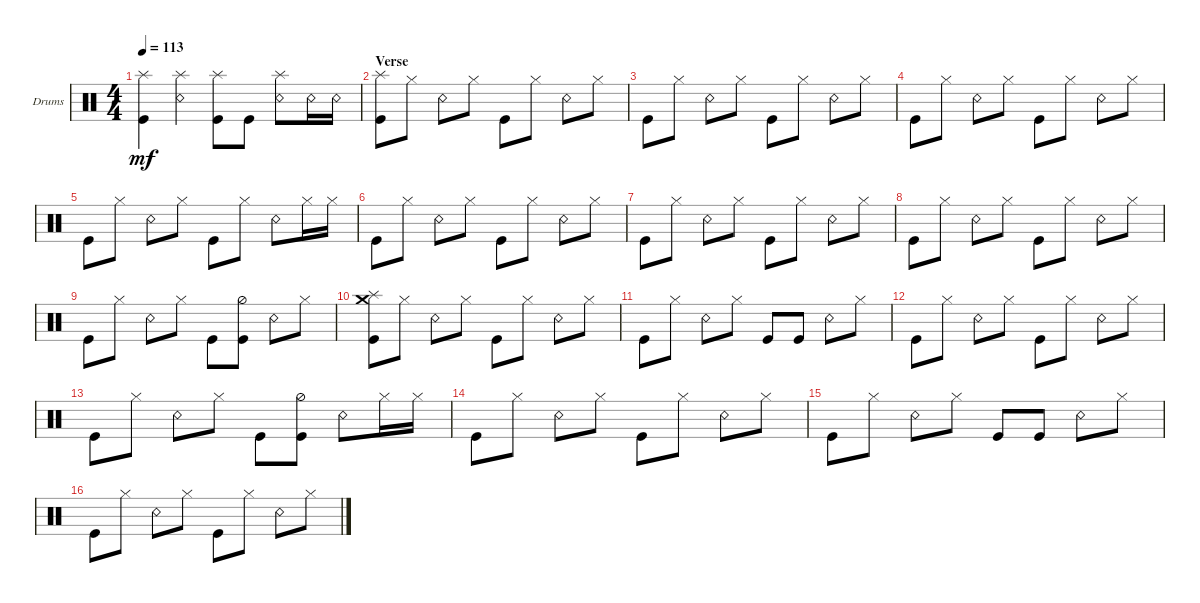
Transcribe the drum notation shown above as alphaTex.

\defaultSystemsLayout 4
\bracketExtendMode groupsimilarinstruments
\firstSystemTrackNameOrientation horizontal
\otherSystemsTrackNameOrientation horizontal
\track ("Drums" "Drums") {instrument percussion}
\staff {score}
\articulation defaults
\ts (4 4)
\tempo 113
\clef neutral
\ks c
("Splash (hit)" "Kick (hit)").4{dy mf} ("Splash (hit)" "Snare (rim shot)").4 ("Splash (hit)" "Kick (hit)").8 "Kick (hit)".8 ("Splash (hit)" "Snare (rim shot)").8 "Snare (rim shot)".16 "Snare (rim shot)".16 |
\section ("" "Verse")
("Kick (hit)" "Splash (hit)").8 "Hi-Hat (closed)".8 "Snare (rim shot)".8 "Hi-Hat (closed)".8 "Kick (hit)".8 "Hi-Hat (closed)".8 "Snare (rim shot)".8 "Hi-Hat (closed)".8 |
"Kick (hit)".8 "Hi-Hat (closed)".8 "Snare (rim shot)".8 "Hi-Hat (closed)".8 "Kick (hit)".8 "Hi-Hat (closed)".8 "Snare (rim shot)".8 "Hi-Hat (closed)".8 |
"Kick (hit)".8 "Hi-Hat (closed)".8 "Snare (rim shot)".8 "Hi-Hat (closed)".8 "Kick (hit)".8 "Hi-Hat (closed)".8 "Snare (rim shot)".8 "Hi-Hat (closed)".8 |
"Kick (hit)".8 "Hi-Hat (closed)".8 "Snare (rim shot)".8 "Hi-Hat (closed)".8 "Kick (hit)".8 "Hi-Hat (closed)".8 "Snare (rim shot)".8 "Hi-Hat (closed)".16 "Hi-Hat (closed)".16 |
"Kick (hit)".8 "Hi-Hat (closed)".8 "Snare (rim shot)".8 "Hi-Hat (closed)".8 "Kick (hit)".8 "Hi-Hat (closed)".8 "Snare (rim shot)".8 "Hi-Hat (closed)".8 |
"Kick (hit)".8 "Hi-Hat (closed)".8 "Snare (rim shot)".8 "Hi-Hat (closed)".8 "Kick (hit)".8 "Hi-Hat (closed)".8 "Snare (rim shot)".8 "Hi-Hat (closed)".8 |
"Kick (hit)".8 "Hi-Hat (closed)".8 "Snare (rim shot)".8 "Hi-Hat (closed)".8 "Kick (hit)".8 "Hi-Hat (closed)".8 "Snare (rim shot)".8 "Hi-Hat (closed)".8 |
"Kick (hit)".8 "Hi-Hat (closed)".8 "Snare (rim shot)".8 "Hi-Hat (closed)".8 "Kick (hit)".8 ("Kick (hit)" "Hi-Hat (half)").8 "Snare (rim shot)".8 "Hi-Hat (closed)".8 |
("Kick (hit)" "Splash (hit)" "Crash medium (hit)").8 "Hi-Hat (closed)".8 "Snare (rim shot)".8 "Hi-Hat (closed)".8 "Kick (hit)".8 "Hi-Hat (closed)".8 "Snare (rim shot)".8 "Hi-Hat (closed)".8 |
"Kick (hit)".8 "Hi-Hat (closed)".8 "Snare (rim shot)".8 "Hi-Hat (closed)".8 "Kick (hit)".8 "Kick (hit)".8 "Snare (rim shot)".8 "Hi-Hat (closed)".8 |
"Kick (hit)".8 "Hi-Hat (closed)".8 "Snare (rim shot)".8 "Hi-Hat (closed)".8 "Kick (hit)".8 "Hi-Hat (closed)".8 "Snare (rim shot)".8 "Hi-Hat (closed)".8 |
"Kick (hit)".8 "Hi-Hat (closed)".8 "Snare (rim shot)".8 "Hi-Hat (closed)".8 "Kick (hit)".8 ("Kick (hit)" "Hi-Hat (half)").8 "Snare (rim shot)".8 "Hi-Hat (closed)".16 "Hi-Hat (closed)".16 |
"Kick (hit)".8 "Hi-Hat (closed)".8 "Snare (rim shot)".8 "Hi-Hat (closed)".8 "Kick (hit)".8 "Hi-Hat (closed)".8 "Snare (rim shot)".8 "Hi-Hat (closed)".8 |
"Kick (hit)".8 "Hi-Hat (closed)".8 "Snare (rim shot)".8 "Hi-Hat (closed)".8 "Kick (hit)".8 "Kick (hit)".8 "Snare (rim shot)".8 "Hi-Hat (closed)".8 |
"Kick (hit)".8 "Hi-Hat (closed)".8 "Snare (rim shot)".8 "Hi-Hat (closed)".8 "Kick (hit)".8 "Hi-Hat (closed)".8 "Snare (rim shot)".8 "Hi-Hat (closed)".8
